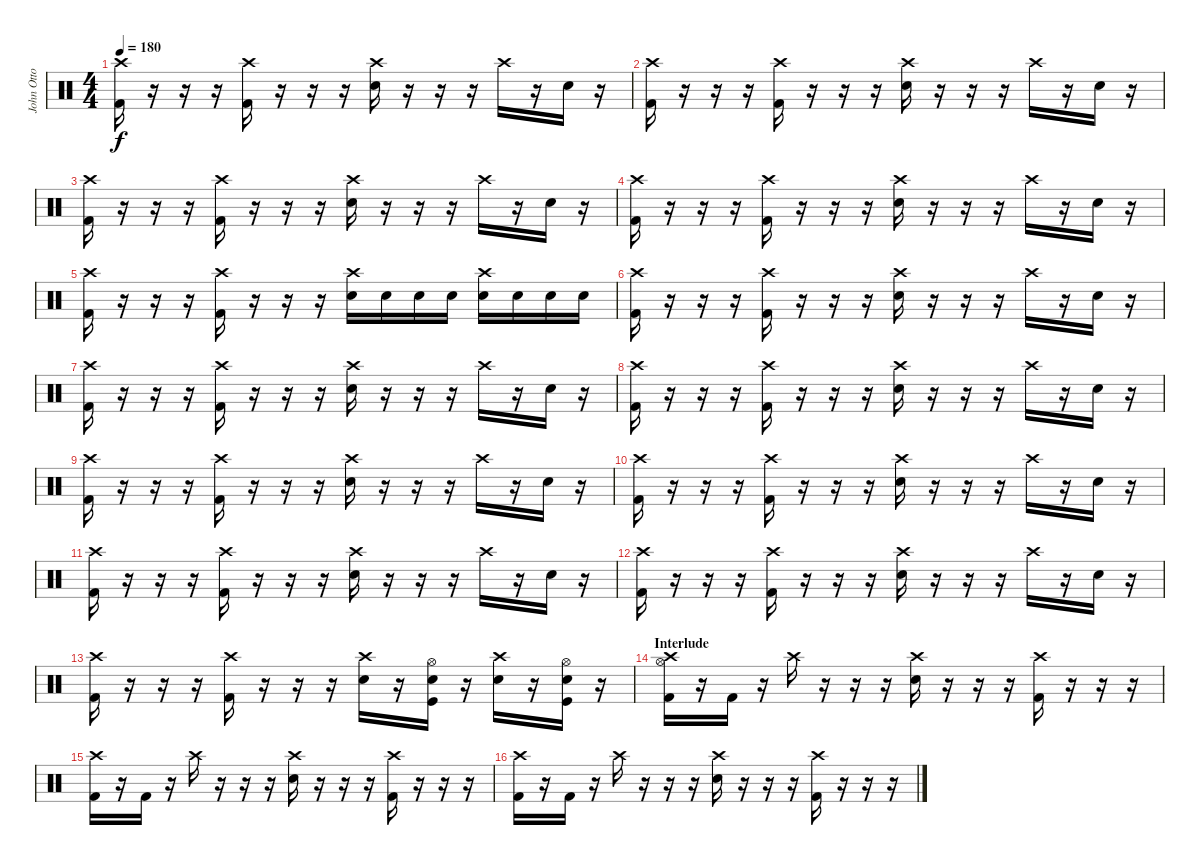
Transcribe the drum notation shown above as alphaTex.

\track ("John Otto" "John Otto") {instrument percussion}
\staff {score}
\articulation defaults
\ts (4 4)
\tempo 180
\clef neutral
\ks c
("Crash high (hit)" "Kick (hit) 2").16{dy f} r.16 r.16 r.16 ("Crash high (hit)" "Kick (hit) 2").16 r.16 r.16 r.16 ("Crash high (hit)" "Snare (hit) 2").16 r.16 r.16 r.16 "Crash high (hit)".16 r.16 "Snare (hit) 2".16 r.16 |
("Crash high (hit)" "Kick (hit) 2").16 r.16 r.16 r.16 ("Crash high (hit)" "Kick (hit) 2").16 r.16 r.16 r.16 ("Crash high (hit)" "Snare (hit) 2").16 r.16 r.16 r.16 "Crash high (hit)".16 r.16 "Snare (hit) 2".16 r.16 |
("Crash high (hit)" "Kick (hit) 2").16 r.16 r.16 r.16 ("Crash high (hit)" "Kick (hit) 2").16 r.16 r.16 r.16 ("Crash high (hit)" "Snare (hit) 2").16 r.16 r.16 r.16 "Crash high (hit)".16 r.16 "Snare (hit) 2".16 r.16 |
("Crash high (hit)" "Kick (hit) 2").16 r.16 r.16 r.16 ("Crash high (hit)" "Kick (hit) 2").16 r.16 r.16 r.16 ("Crash high (hit)" "Snare (hit) 2").16 r.16 r.16 r.16 "Crash high (hit)".16 r.16 "Snare (hit) 2".16 r.16 |
("Crash high (hit)" "Kick (hit) 2").16 r.16 r.16 r.16 ("Crash high (hit)" "Kick (hit) 2").16 r.16 r.16 r.16 ("Crash high (hit)" "Snare (hit) 2").16 "Snare (hit) 2".16 "Snare (hit) 2".16 "Snare (hit) 2".16 ("Crash high (hit)" "Snare (hit) 2").16 "Snare (hit) 2".16 "Snare (hit) 2".16 "Snare (hit) 2".16 |
("Crash high (hit)" "Kick (hit) 2").16 r.16 r.16 r.16 ("Crash high (hit)" "Kick (hit) 2").16 r.16 r.16 r.16 ("Crash high (hit)" "Snare (hit) 2").16 r.16 r.16 r.16 "Crash high (hit)".16 r.16 "Snare (hit) 2".16 r.16 |
("Crash high (hit)" "Kick (hit) 2").16 r.16 r.16 r.16 ("Crash high (hit)" "Kick (hit) 2").16 r.16 r.16 r.16 ("Crash high (hit)" "Snare (hit) 2").16 r.16 r.16 r.16 "Crash high (hit)".16 r.16 "Snare (hit) 2".16 r.16 |
("Crash high (hit)" "Kick (hit) 2").16 r.16 r.16 r.16 ("Crash high (hit)" "Kick (hit) 2").16 r.16 r.16 r.16 ("Crash high (hit)" "Snare (hit) 2").16 r.16 r.16 r.16 "Crash high (hit)".16 r.16 "Snare (hit) 2".16 r.16 |
("Crash high (hit)" "Kick (hit) 2").16 r.16 r.16 r.16 ("Crash high (hit)" "Kick (hit) 2").16 r.16 r.16 r.16 ("Crash high (hit)" "Snare (hit) 2").16 r.16 r.16 r.16 "Crash high (hit)".16 r.16 "Snare (hit) 2".16 r.16 |
("Crash high (hit)" "Kick (hit) 2").16 r.16 r.16 r.16 ("Crash high (hit)" "Kick (hit) 2").16 r.16 r.16 r.16 ("Crash high (hit)" "Snare (hit) 2").16 r.16 r.16 r.16 "Crash high (hit)".16 r.16 "Snare (hit) 2".16 r.16 |
("Crash high (hit)" "Kick (hit) 2").16 r.16 r.16 r.16 ("Crash high (hit)" "Kick (hit) 2").16 r.16 r.16 r.16 ("Crash high (hit)" "Snare (hit) 2").16 r.16 r.16 r.16 "Crash high (hit)".16 r.16 "Snare (hit) 2".16 r.16 |
("Crash high (hit)" "Kick (hit) 2").16 r.16 r.16 r.16 ("Crash high (hit)" "Kick (hit) 2").16 r.16 r.16 r.16 ("Crash high (hit)" "Snare (hit) 2").16 r.16 r.16 r.16 "Crash high (hit)".16 r.16 "Snare (hit) 2".16 r.16 |
("Crash high (hit)" "Kick (hit) 2").16 r.16 r.16 r.16 ("Crash high (hit)" "Kick (hit) 2").16 r.16 r.16 r.16 ("Crash high (hit)" "Snare (hit) 2").16 r.16 ("Hi-Hat (open)" "Electric Snare (hit)" "Kick (hit)").16 r.16 ("Crash high (hit)" "Snare (hit) 2").16 r.16 ("Hi-Hat (open)" "Electric Snare (hit)" "Kick (hit)").16 r.16 |
\section ("" "Interlude")
("Crash high (hit)" "Hi-Hat (open)" "Kick (hit) 2").16 r.16 "Kick (hit) 2".16 r.16 "Crash high (hit)".16 r.16 r.16 r.16 ("Crash high (hit)" "Snare (hit) 2").16 r.16 r.16 r.16 ("Crash high (hit)" "Kick (hit) 2").16 r.16 r.16 r.16 |
("Crash high (hit)" "Kick (hit) 2").16 r.16 "Kick (hit) 2".16 r.16 "Crash high (hit)".16 r.16 r.16 r.16 ("Crash high (hit)" "Snare (hit) 2").16 r.16 r.16 r.16 ("Crash high (hit)" "Kick (hit) 2").16 r.16 r.16 r.16 |
("Crash high (hit)" "Kick (hit) 2").16 r.16 "Kick (hit) 2".16 r.16 "Crash high (hit)".16 r.16 r.16 r.16 ("Crash high (hit)" "Snare (hit) 2").16 r.16 r.16 r.16 ("Crash high (hit)" "Kick (hit) 2").16 r.16 r.16 r.16
